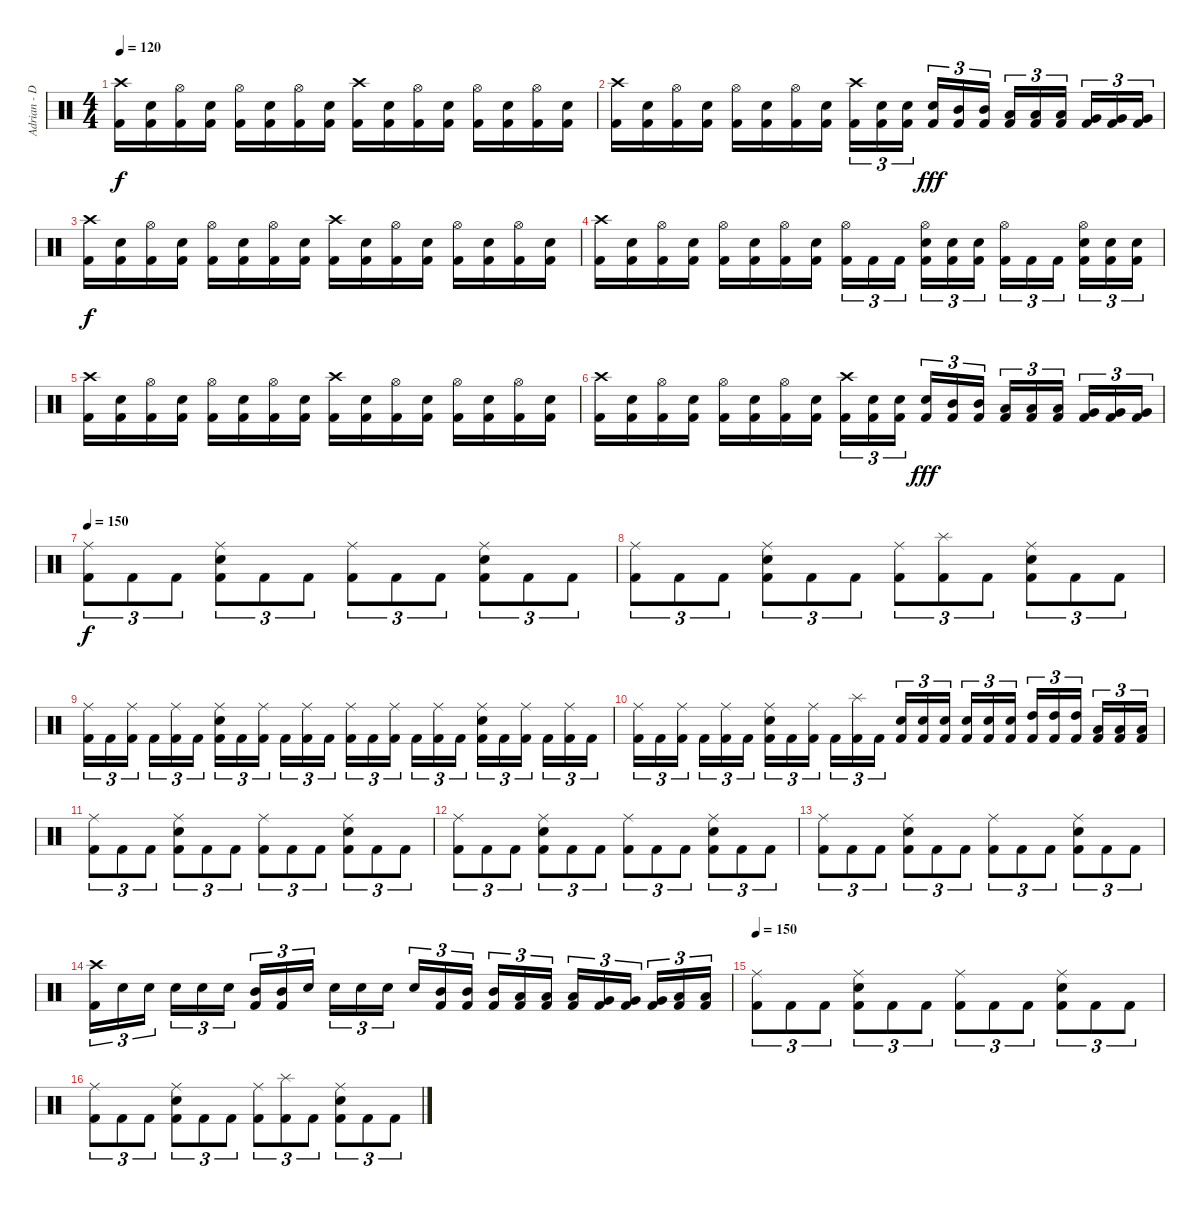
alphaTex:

\track ("Adrian - Drums" "Adrian - D") {instrument percussion}
\staff {score}
\articulation defaults
\ts (4 4)
\tempo 120
\clef neutral
\ks c
("Crash high (hit)" "Kick (hit) 2").16{dy f} ("Electric Snare (hit)" "Kick (hit) 2").16 ("Hi-Hat (open)" "Kick (hit) 2").16 ("Electric Snare (hit)" "Kick (hit) 2").16 ("Hi-Hat (open)" "Kick (hit) 2").16 ("Electric Snare (hit)" "Kick (hit) 2").16 ("Hi-Hat (open)" "Kick (hit) 2").16 ("Electric Snare (hit)" "Kick (hit) 2").16 ("Crash high (hit)" "Kick (hit) 2").16 ("Electric Snare (hit)" "Kick (hit) 2").16 ("Hi-Hat (open)" "Kick (hit) 2").16 ("Electric Snare (hit)" "Kick (hit) 2").16 ("Hi-Hat (open)" "Kick (hit) 2").16 ("Electric Snare (hit)" "Kick (hit) 2").16 ("Hi-Hat (open)" "Kick (hit) 2").16 ("Electric Snare (hit)" "Kick (hit) 2").16 |
("Crash high (hit)" "Kick (hit) 2").16 ("Electric Snare (hit)" "Kick (hit) 2").16 ("Hi-Hat (open)" "Kick (hit) 2").16 ("Electric Snare (hit)" "Kick (hit) 2").16 ("Hi-Hat (open)" "Kick (hit) 2").16 ("Electric Snare (hit)" "Kick (hit) 2").16 ("Hi-Hat (open)" "Kick (hit) 2").16 ("Electric Snare (hit)" "Kick (hit) 2").16 ("Crash high (hit)" "Kick (hit) 2").16{tu (3 2)} ("Electric Snare (hit)" "Kick (hit) 2").16{tu (3 2)} ("Electric Snare (hit)" "Kick (hit) 2").16{tu (3 2)} ("Electric Snare (hit)" "Kick (hit) 2").16{tu (3 2) dy fff} ("Mid Tom (hit)" "Kick (hit) 2").16{tu (3 2)} ("Mid Tom (hit)" "Kick (hit) 2").16{tu (3 2)} ("Low Tom (hit)" "Kick (hit) 2").16{tu (3 2)} ("Low Tom (hit)" "Kick (hit) 2").16{tu (3 2)} ("Low Tom (hit)" "Kick (hit) 2").16{tu (3 2)} ("Very Low Tom (hit)" "Kick (hit) 2").16{tu (3 2)} ("Very Low Tom (hit)" "Kick (hit) 2").16{tu (3 2)} ("Very Low Tom (hit)" "Kick (hit) 2").16{tu (3 2)} |
("Crash high (hit)" "Kick (hit) 2").16{dy f} ("Electric Snare (hit)" "Kick (hit) 2").16 ("Hi-Hat (open)" "Kick (hit) 2").16 ("Electric Snare (hit)" "Kick (hit) 2").16 ("Hi-Hat (open)" "Kick (hit) 2").16 ("Electric Snare (hit)" "Kick (hit) 2").16 ("Hi-Hat (open)" "Kick (hit) 2").16 ("Electric Snare (hit)" "Kick (hit) 2").16 ("Crash high (hit)" "Kick (hit) 2").16 ("Electric Snare (hit)" "Kick (hit) 2").16 ("Hi-Hat (open)" "Kick (hit) 2").16 ("Electric Snare (hit)" "Kick (hit) 2").16 ("Hi-Hat (open)" "Kick (hit) 2").16 ("Electric Snare (hit)" "Kick (hit) 2").16 ("Hi-Hat (open)" "Kick (hit) 2").16 ("Electric Snare (hit)" "Kick (hit) 2").16 |
("Crash high (hit)" "Kick (hit) 2").16 ("Electric Snare (hit)" "Kick (hit) 2").16 ("Hi-Hat (open)" "Kick (hit) 2").16 ("Electric Snare (hit)" "Kick (hit) 2").16 ("Hi-Hat (open)" "Kick (hit) 2").16 ("Electric Snare (hit)" "Kick (hit) 2").16 ("Hi-Hat (open)" "Kick (hit) 2").16 ("Electric Snare (hit)" "Kick (hit) 2").16 ("Hi-Hat (open)" "Kick (hit) 2").16{tu (3 2)} "Kick (hit) 2".16{tu (3 2)} "Kick (hit) 2".16{tu (3 2)} ("Hi-Hat (open)" "Electric Snare (hit)" "Kick (hit) 2").16{tu (3 2)} ("Electric Snare (hit)" "Kick (hit) 2").16{tu (3 2)} ("Electric Snare (hit)" "Kick (hit) 2").16{tu (3 2)} ("Hi-Hat (open)" "Kick (hit) 2").16{tu (3 2)} "Kick (hit) 2".16{tu (3 2)} "Kick (hit) 2".16{tu (3 2)} ("Hi-Hat (open)" "Electric Snare (hit)" "Kick (hit) 2").16{tu (3 2)} ("Electric Snare (hit)" "Kick (hit) 2").16{tu (3 2)} ("Electric Snare (hit)" "Kick (hit) 2").16{tu (3 2)} |
("Crash high (hit)" "Kick (hit) 2").16 ("Electric Snare (hit)" "Kick (hit) 2").16 ("Hi-Hat (open)" "Kick (hit) 2").16 ("Electric Snare (hit)" "Kick (hit) 2").16 ("Hi-Hat (open)" "Kick (hit) 2").16 ("Electric Snare (hit)" "Kick (hit) 2").16 ("Hi-Hat (open)" "Kick (hit) 2").16 ("Electric Snare (hit)" "Kick (hit) 2").16 ("Crash high (hit)" "Kick (hit) 2").16 ("Electric Snare (hit)" "Kick (hit) 2").16 ("Hi-Hat (open)" "Kick (hit) 2").16 ("Electric Snare (hit)" "Kick (hit) 2").16 ("Hi-Hat (open)" "Kick (hit) 2").16 ("Electric Snare (hit)" "Kick (hit) 2").16 ("Hi-Hat (open)" "Kick (hit) 2").16 ("Electric Snare (hit)" "Kick (hit) 2").16 |
("Crash high (hit)" "Kick (hit) 2").16 ("Electric Snare (hit)" "Kick (hit) 2").16 ("Hi-Hat (open)" "Kick (hit) 2").16 ("Electric Snare (hit)" "Kick (hit) 2").16 ("Hi-Hat (open)" "Kick (hit) 2").16 ("Electric Snare (hit)" "Kick (hit) 2").16 ("Hi-Hat (open)" "Kick (hit) 2").16 ("Electric Snare (hit)" "Kick (hit) 2").16 ("Crash high (hit)" "Kick (hit) 2").16{tu (3 2)} ("Electric Snare (hit)" "Kick (hit) 2").16{tu (3 2)} ("Electric Snare (hit)" "Kick (hit) 2").16{tu (3 2)} ("Electric Snare (hit)" "Kick (hit) 2").16{tu (3 2) dy fff} ("Mid Tom (hit)" "Kick (hit) 2").16{tu (3 2)} ("Mid Tom (hit)" "Kick (hit) 2").16{tu (3 2)} ("Low Tom (hit)" "Kick (hit) 2").16{tu (3 2)} ("Low Tom (hit)" "Kick (hit) 2").16{tu (3 2)} ("Low Tom (hit)" "Kick (hit) 2").16{tu (3 2)} ("Very Low Tom (hit)" "Kick (hit) 2").16{tu (3 2)} ("Very Low Tom (hit)" "Kick (hit) 2").16{tu (3 2)} ("Very Low Tom (hit)" "Kick (hit) 2").16{tu (3 2)} |
\tempo 150
("Ride (middle)" "Kick (hit) 2").8{tu (3 2) dy f} "Kick (hit) 2".8{tu (3 2)} "Kick (hit) 2".8{tu (3 2)} ("Ride (middle)" "Electric Snare (hit)" "Kick (hit) 2").8{tu (3 2)} "Kick (hit) 2".8{tu (3 2)} "Kick (hit) 2".8{tu (3 2)} ("Ride (middle)" "Kick (hit) 2").8{tu (3 2)} "Kick (hit) 2".8{tu (3 2)} "Kick (hit) 2".8{tu (3 2)} ("Ride (middle)" "Electric Snare (hit)" "Kick (hit) 2").8{tu (3 2)} "Kick (hit) 2".8{tu (3 2)} "Kick (hit) 2".8{tu (3 2)} |
("Ride (middle)" "Kick (hit) 2").8{tu (3 2)} "Kick (hit) 2".8{tu (3 2)} "Kick (hit) 2".8{tu (3 2)} ("Ride (middle)" "Electric Snare (hit)" "Kick (hit) 2").8{tu (3 2)} "Kick (hit) 2".8{tu (3 2)} "Kick (hit) 2".8{tu (3 2)} ("Ride (middle)" "Kick (hit) 2").8{tu (3 2)} ("Splash (hit)" "Kick (hit) 2").8{tu (3 2)} "Kick (hit) 2".8{tu (3 2)} ("Ride (middle)" "Electric Snare (hit)" "Kick (hit) 2").8{tu (3 2)} "Kick (hit) 2".8{tu (3 2)} "Kick (hit) 2".8{tu (3 2)} |
("Ride (middle)" "Kick (hit) 2").16{tu (3 2)} "Kick (hit) 2".16{tu (3 2)} ("Ride (middle)" "Kick (hit) 2").16{tu (3 2)} "Kick (hit) 2".16{tu (3 2)} ("Ride (middle)" "Kick (hit) 2").16{tu (3 2)} "Kick (hit) 2".16{tu (3 2)} ("Ride (middle)" "Electric Snare (hit)" "Kick (hit) 2").16{tu (3 2)} "Kick (hit) 2".16{tu (3 2)} ("Ride (middle)" "Kick (hit) 2").16{tu (3 2)} "Kick (hit) 2".16{tu (3 2)} ("Ride (middle)" "Kick (hit) 2").16{tu (3 2)} "Kick (hit) 2".16{tu (3 2)} ("Ride (middle)" "Kick (hit) 2").16{tu (3 2)} "Kick (hit) 2".16{tu (3 2)} ("Ride (middle)" "Kick (hit) 2").16{tu (3 2)} "Kick (hit) 2".16{tu (3 2)} ("Ride (middle)" "Kick (hit) 2").16{tu (3 2)} "Kick (hit) 2".16{tu (3 2)} ("Ride (middle)" "Electric Snare (hit)" "Kick (hit) 2").16{tu (3 2)} "Kick (hit) 2".16{tu (3 2)} ("Ride (middle)" "Kick (hit) 2").16{tu (3 2)} "Kick (hit) 2".16{tu (3 2)} ("Ride (middle)" "Kick (hit) 2").16{tu (3 2)} "Kick (hit) 2".16{tu (3 2)} |
("Ride (middle)" "Kick (hit) 2").16{tu (3 2)} "Kick (hit) 2".16{tu (3 2)} ("Ride (middle)" "Kick (hit) 2").16{tu (3 2)} "Kick (hit) 2".16{tu (3 2)} ("Ride (middle)" "Kick (hit) 2").16{tu (3 2)} "Kick (hit) 2".16{tu (3 2)} ("Ride (middle)" "Electric Snare (hit)" "Kick (hit) 2").16{tu (3 2)} "Kick (hit) 2".16{tu (3 2)} ("Ride (middle)" "Kick (hit) 2").16{tu (3 2)} "Kick (hit) 2".16{tu (3 2)} ("Splash (hit)" "Kick (hit) 2").16{tu (3 2)} "Kick (hit) 2".16{tu (3 2)} ("Electric Snare (hit)" "Kick (hit) 2").16{tu (3 2)} ("Electric Snare (hit)" "Kick (hit) 2").16{tu (3 2)} ("Electric Snare (hit)" "Kick (hit) 2").16{tu (3 2)} ("Electric Snare (hit)" "Kick (hit) 2").16{tu (3 2)} ("Electric Snare (hit)" "Kick (hit) 2").16{tu (3 2)} ("Electric Snare (hit)" "Kick (hit) 2").16{tu (3 2)} ("High Tom (hit)" "Kick (hit) 2").16{tu (3 2)} ("High Tom (hit)" "Kick (hit) 2").16{tu (3 2)} ("High Tom (hit)" "Kick (hit) 2").16{tu (3 2)} ("Low Tom (hit)" "Kick (hit) 2").16{tu (3 2)} ("Low Tom (hit)" "Kick (hit) 2").16{tu (3 2)} ("Low Tom (hit)" "Kick (hit) 2").16{tu (3 2)} |
("Ride (middle)" "Kick (hit) 2").8{tu (3 2)} "Kick (hit) 2".8{tu (3 2)} "Kick (hit) 2".8{tu (3 2)} ("Ride (middle)" "Electric Snare (hit)" "Kick (hit) 2").8{tu (3 2)} "Kick (hit) 2".8{tu (3 2)} "Kick (hit) 2".8{tu (3 2)} ("Ride (middle)" "Kick (hit) 2").8{tu (3 2)} "Kick (hit) 2".8{tu (3 2)} "Kick (hit) 2".8{tu (3 2)} ("Ride (middle)" "Electric Snare (hit)" "Kick (hit) 2").8{tu (3 2)} "Kick (hit) 2".8{tu (3 2)} "Kick (hit) 2".8{tu (3 2)} |
("Ride (middle)" "Kick (hit) 2").8{tu (3 2)} "Kick (hit) 2".8{tu (3 2)} "Kick (hit) 2".8{tu (3 2)} ("Ride (middle)" "Electric Snare (hit)" "Kick (hit) 2").8{tu (3 2)} "Kick (hit) 2".8{tu (3 2)} "Kick (hit) 2".8{tu (3 2)} ("Ride (middle)" "Kick (hit) 2").8{tu (3 2)} "Kick (hit) 2".8{tu (3 2)} "Kick (hit) 2".8{tu (3 2)} ("Ride (middle)" "Electric Snare (hit)" "Kick (hit) 2").8{tu (3 2)} "Kick (hit) 2".8{tu (3 2)} "Kick (hit) 2".8{tu (3 2)} |
("Ride (middle)" "Kick (hit) 2").8{tu (3 2)} "Kick (hit) 2".8{tu (3 2)} "Kick (hit) 2".8{tu (3 2)} ("Ride (middle)" "Electric Snare (hit)" "Kick (hit) 2").8{tu (3 2)} "Kick (hit) 2".8{tu (3 2)} "Kick (hit) 2".8{tu (3 2)} ("Ride (middle)" "Kick (hit) 2").8{tu (3 2)} "Kick (hit) 2".8{tu (3 2)} "Kick (hit) 2".8{tu (3 2)} ("Ride (middle)" "Electric Snare (hit)" "Kick (hit) 2").8{tu (3 2)} "Kick (hit) 2".8{tu (3 2)} "Kick (hit) 2".8{tu (3 2)} |
("Crash high (hit)" "Kick (hit) 2").16{tu (3 2)} "Electric Snare (hit)".16{tu (3 2)} "Electric Snare (hit)".16{tu (3 2)} "Electric Snare (hit)".16{tu (3 2)} "Electric Snare (hit)".16{tu (3 2)} "Electric Snare (hit)".16{tu (3 2)} ("Mid Tom (hit)" "Kick (hit) 2").16{tu (3 2)} ("Mid Tom (hit)" "Kick (hit) 2").16{tu (3 2)} "Electric Snare (hit)".16{tu (3 2)} "Electric Snare (hit)".16{tu (3 2)} "Electric Snare (hit)".16{tu (3 2)} "Electric Snare (hit)".16{tu (3 2)} "Electric Snare (hit)".16{tu (3 2)} ("Mid Tom (hit)" "Kick (hit) 2").16{tu (3 2)} ("Mid Tom (hit)" "Kick (hit) 2").16{tu (3 2)} ("Mid Tom (hit)" "Kick (hit) 2").16{tu (3 2)} ("Low Tom (hit)" "Kick (hit) 2").16{tu (3 2)} ("Low Tom (hit)" "Kick (hit) 2").16{tu (3 2)} ("Low Tom (hit)" "Kick (hit) 2").16{tu (3 2)} ("Very Low Tom (hit)" "Kick (hit) 2").16{tu (3 2)} ("Very Low Tom (hit)" "Kick (hit) 2").16{tu (3 2)} ("Very Low Tom (hit)" "Kick (hit) 2").16{tu (3 2)} ("Low Floor Tom (hit)" "Kick (hit) 2").16{tu (3 2)} ("Low Floor Tom (hit)" "Kick (hit) 2").16{tu (3 2)} |
\tempo 150
("Ride (middle)" "Kick (hit) 2").8{tu (3 2)} "Kick (hit) 2".8{tu (3 2)} "Kick (hit) 2".8{tu (3 2)} ("Ride (middle)" "Electric Snare (hit)" "Kick (hit) 2").8{tu (3 2)} "Kick (hit) 2".8{tu (3 2)} "Kick (hit) 2".8{tu (3 2)} ("Ride (middle)" "Kick (hit) 2").8{tu (3 2)} "Kick (hit) 2".8{tu (3 2)} "Kick (hit) 2".8{tu (3 2)} ("Ride (middle)" "Electric Snare (hit)" "Kick (hit) 2").8{tu (3 2)} "Kick (hit) 2".8{tu (3 2)} "Kick (hit) 2".8{tu (3 2)} |
("Ride (middle)" "Kick (hit) 2").8{tu (3 2)} "Kick (hit) 2".8{tu (3 2)} "Kick (hit) 2".8{tu (3 2)} ("Ride (middle)" "Electric Snare (hit)" "Kick (hit) 2").8{tu (3 2)} "Kick (hit) 2".8{tu (3 2)} "Kick (hit) 2".8{tu (3 2)} ("Ride (middle)" "Kick (hit) 2").8{tu (3 2)} ("Splash (hit)" "Kick (hit) 2").8{tu (3 2)} "Kick (hit) 2".8{tu (3 2)} ("Ride (middle)" "Electric Snare (hit)" "Kick (hit) 2").8{tu (3 2)} "Kick (hit) 2".8{tu (3 2)} "Kick (hit) 2".8{tu (3 2)}
